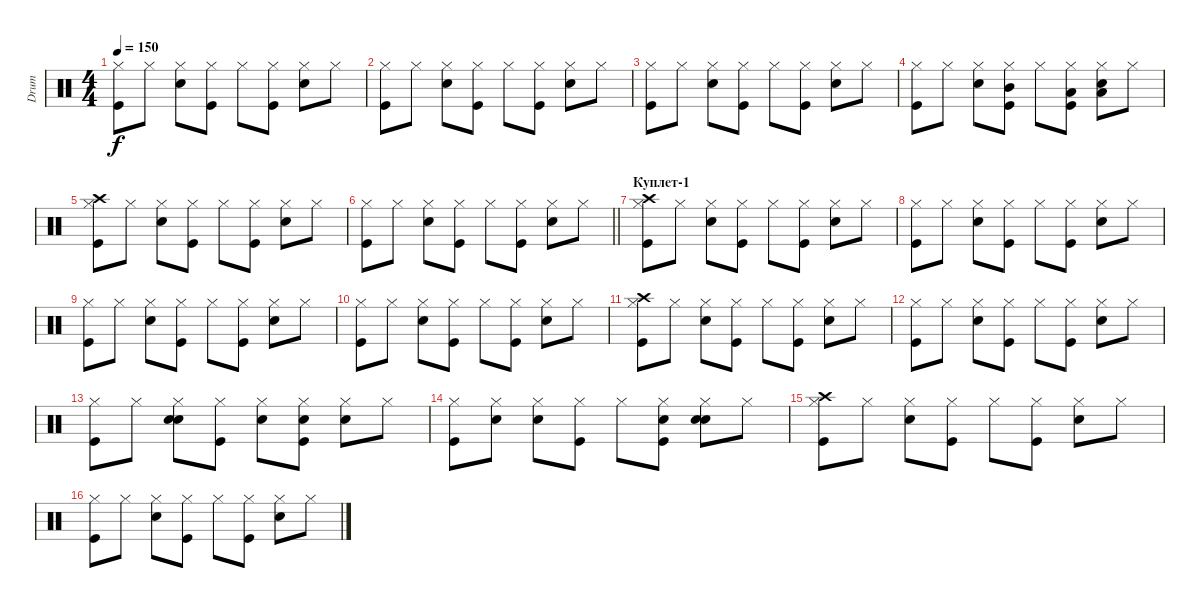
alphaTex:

\track ("Drum" "Drum") {instrument percussion}
\staff {score}
\articulation defaults
\ts (4 4)
\tempo 150
\clef neutral
\ks c
("Kick (hit)" "Hi-Hat (closed)").8{dy f} "Hi-Hat (closed)".8 ("Snare (hit) 2" "Hi-Hat (closed)").8 ("Kick (hit)" "Hi-Hat (closed)").8 "Hi-Hat (closed)".8 ("Kick (hit)" "Hi-Hat (closed)").8 ("Snare (hit) 2" "Hi-Hat (closed)").8 "Hi-Hat (closed)".8 |
("Kick (hit)" "Hi-Hat (closed)").8 "Hi-Hat (closed)".8 ("Snare (hit) 2" "Hi-Hat (closed)").8 ("Kick (hit)" "Hi-Hat (closed)").8 "Hi-Hat (closed)".8 ("Kick (hit)" "Hi-Hat (closed)").8 ("Snare (hit) 2" "Hi-Hat (closed)").8 "Hi-Hat (closed)".8 |
("Kick (hit)" "Hi-Hat (closed)").8 "Hi-Hat (closed)".8 ("Snare (hit) 2" "Hi-Hat (closed)").8 ("Kick (hit)" "Hi-Hat (closed)").8 "Hi-Hat (closed)".8 ("Kick (hit)" "Hi-Hat (closed)").8 ("Snare (hit) 2" "Hi-Hat (closed)").8 "Hi-Hat (closed)".8 |
("Kick (hit)" "Hi-Hat (closed)").8 "Hi-Hat (closed)".8 ("Snare (hit) 2" "Hi-Hat (closed)").8 ("Kick (hit)" "Hi-Hat (closed)" "Mid Tom (hit)").8 "Hi-Hat (closed)".8 ("Kick (hit)" "Hi-Hat (closed)" "Low Tom (hit)").8 ("Snare (hit) 2" "Hi-Hat (closed)" "Low Tom (hit)").8 "Hi-Hat (closed)".8 |
("Kick (hit)" "Hi-Hat (closed)" "Crash high (hit)").8 "Hi-Hat (closed)".8 ("Snare (hit) 2" "Hi-Hat (closed)").8 ("Kick (hit)" "Hi-Hat (closed)").8 "Hi-Hat (closed)".8 ("Kick (hit)" "Hi-Hat (closed)").8 ("Snare (hit) 2" "Hi-Hat (closed)").8 "Hi-Hat (closed)".8 |
\barLineRight lightlight
("Kick (hit)" "Hi-Hat (closed)").8 "Hi-Hat (closed)".8 ("Snare (hit) 2" "Hi-Hat (closed)").8 ("Kick (hit)" "Hi-Hat (closed)").8 "Hi-Hat (closed)".8 ("Kick (hit)" "Hi-Hat (closed)").8 ("Snare (hit) 2" "Hi-Hat (closed)").8 "Hi-Hat (closed)".8 |
\section ("" "Куплет-1")
("Kick (hit)" "Hi-Hat (closed)" "Crash high (hit)").8 "Hi-Hat (closed)".8 ("Snare (hit) 2" "Hi-Hat (closed)").8 ("Kick (hit)" "Hi-Hat (closed)").8 "Hi-Hat (closed)".8 ("Kick (hit)" "Hi-Hat (closed)").8 ("Snare (hit) 2" "Hi-Hat (closed)").8 "Hi-Hat (closed)".8 |
("Kick (hit)" "Hi-Hat (closed)").8 "Hi-Hat (closed)".8 ("Snare (hit) 2" "Hi-Hat (closed)").8 ("Kick (hit)" "Hi-Hat (closed)").8 "Hi-Hat (closed)".8 ("Kick (hit)" "Hi-Hat (closed)").8 ("Snare (hit) 2" "Hi-Hat (closed)").8 "Hi-Hat (closed)".8 |
("Kick (hit)" "Hi-Hat (closed)").8 "Hi-Hat (closed)".8 ("Snare (hit) 2" "Hi-Hat (closed)").8 ("Kick (hit)" "Hi-Hat (closed)").8 "Hi-Hat (closed)".8 ("Kick (hit)" "Hi-Hat (closed)").8 ("Snare (hit) 2" "Hi-Hat (closed)").8 "Hi-Hat (closed)".8 |
("Kick (hit)" "Hi-Hat (closed)").8 "Hi-Hat (closed)".8 ("Snare (hit) 2" "Hi-Hat (closed)").8 ("Kick (hit)" "Hi-Hat (closed)").8 "Hi-Hat (closed)".8 ("Kick (hit)" "Hi-Hat (closed)").8 ("Snare (hit) 2" "Hi-Hat (closed)").8 "Hi-Hat (closed)".8 |
("Kick (hit)" "Hi-Hat (closed)" "Crash high (hit)").8 "Hi-Hat (closed)".8 ("Snare (hit) 2" "Hi-Hat (closed)").8 ("Kick (hit)" "Hi-Hat (closed)").8 "Hi-Hat (closed)".8 ("Kick (hit)" "Hi-Hat (closed)").8 ("Snare (hit) 2" "Hi-Hat (closed)").8 "Hi-Hat (closed)".8 |
("Kick (hit)" "Hi-Hat (closed)").8 "Hi-Hat (closed)".8 ("Snare (hit) 2" "Hi-Hat (closed)").8 ("Kick (hit)" "Hi-Hat (closed)").8 "Hi-Hat (closed)".8 ("Kick (hit)" "Hi-Hat (closed)").8 ("Snare (hit) 2" "Hi-Hat (closed)").8 "Hi-Hat (closed)".8 |
("Kick (hit)" "Hi-Hat (closed)").8 "Hi-Hat (closed)".8 ("Snare (hit) 2" "Hi-Hat (closed)" "Hand Clap (hit)").8 ("Kick (hit)" "Hi-Hat (closed)").8 ("Hi-Hat (closed)" "Hand Clap (hit)").8 ("Kick (hit)" "Hi-Hat (closed)" "Hand Clap (hit)").8 ("Snare (hit) 2" "Hi-Hat (closed)").8 "Hi-Hat (closed)".8 |
("Kick (hit)" "Hi-Hat (closed)").8 ("Hi-Hat (closed)" "Hand Clap (hit)").8 ("Snare (hit) 2" "Hi-Hat (closed)").8 ("Kick (hit)" "Hi-Hat (closed)").8 "Hi-Hat (closed)".8 ("Kick (hit)" "Hi-Hat (closed)" "Hand Clap (hit)").8 ("Snare (hit) 2" "Hi-Hat (closed)" "Hand Clap (hit)").8 "Hi-Hat (closed)".8 |
("Kick (hit)" "Hi-Hat (closed)" "Crash high (hit)").8 "Hi-Hat (closed)".8 ("Snare (hit) 2" "Hi-Hat (closed)").8 ("Kick (hit)" "Hi-Hat (closed)").8 "Hi-Hat (closed)".8 ("Kick (hit)" "Hi-Hat (closed)").8 ("Snare (hit) 2" "Hi-Hat (closed)").8 "Hi-Hat (closed)".8 |
("Kick (hit)" "Hi-Hat (closed)").8 "Hi-Hat (closed)".8 ("Snare (hit) 2" "Hi-Hat (closed)").8 ("Kick (hit)" "Hi-Hat (closed)").8 "Hi-Hat (closed)".8 ("Kick (hit)" "Hi-Hat (closed)").8 ("Snare (hit) 2" "Hi-Hat (closed)").8 "Hi-Hat (closed)".8
